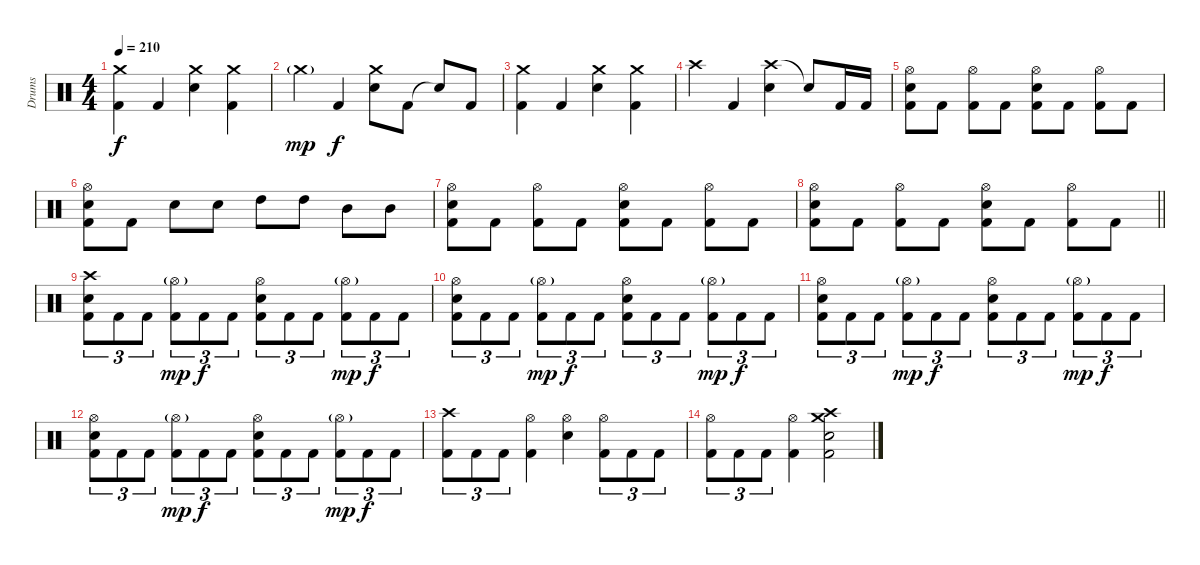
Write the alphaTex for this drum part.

\track ("Drums" "Drums") {instrument percussion}
\staff {score}
\articulation defaults
\ts (4 4)
\tempo 210
\clef neutral
\ks c
("Crash medium (hit)" "Kick (hit) 2").4{dy f} "Kick (hit) 2".4 ("Crash medium (hit)" "Electric Snare (hit)").4 ("Crash medium (hit)" "Kick (hit) 2").4 |
"Crash medium (hit)"{g}.4{dy mp} "Kick (hit) 2".4{dy f} ("Crash medium (hit)" "Electric Snare (hit)").8 "Kick (hit) 2".8 "Snare (hit)"{t}.8 "Kick (hit) 2".8 |
("Crash medium (hit)" "Kick (hit) 2").4 "Kick (hit) 2".4 ("Crash medium (hit)" "Electric Snare (hit)").4 ("Crash medium (hit)" "Kick (hit) 2").4 |
"Crash high (hit)".4 "Kick (hit) 2".4 ("Crash high (hit)" "Electric Snare (hit)").4 "Snare (hit)"{t}.8 "Kick (hit) 2".16 "Kick (hit) 2".16 |
("Hi-Hat (open)" "Electric Snare (hit)" "Kick (hit) 2").8 "Kick (hit) 2".8 ("Hi-Hat (open)" "Kick (hit) 2").8 "Kick (hit) 2".8 ("Hi-Hat (open)" "Electric Snare (hit)" "Kick (hit) 2").8 "Kick (hit) 2".8 ("Hi-Hat (open)" "Kick (hit) 2").8 "Kick (hit) 2".8 |
("Hi-Hat (open)" "Electric Snare (hit)" "Kick (hit) 2").8 "Kick (hit) 2".8 "Electric Snare (hit)".8 "Electric Snare (hit)".8 "High Tom (hit)".8 "High Tom (hit)".8 "Mid Tom (hit)".8 "Mid Tom (hit)".8 |
("Hi-Hat (open)" "Electric Snare (hit)" "Kick (hit) 2").8 "Kick (hit) 2".8 ("Hi-Hat (open)" "Kick (hit) 2").8 "Kick (hit) 2".8 ("Hi-Hat (open)" "Electric Snare (hit)" "Kick (hit) 2").8 "Kick (hit) 2".8 ("Hi-Hat (open)" "Kick (hit) 2").8 "Kick (hit) 2".8 |
\barLineRight lightlight
("Hi-Hat (open)" "Electric Snare (hit)" "Kick (hit) 2").8 "Kick (hit) 2".8 ("Hi-Hat (open)" "Kick (hit) 2").8 "Kick (hit) 2".8 ("Hi-Hat (open)" "Electric Snare (hit)" "Kick (hit) 2").8 "Kick (hit) 2".8 ("Hi-Hat (open)" "Kick (hit) 2").8 "Kick (hit) 2".8 |
("Crash high (hit)" "Electric Snare (hit)" "Kick (hit) 2").8{tu (3 2)} "Kick (hit) 2".8{tu (3 2)} "Kick (hit) 2".8{tu (3 2)} ("Hi-Hat (open)"{g} "Kick (hit) 2").8{tu (3 2) dy mp} "Kick (hit) 2".8{tu (3 2) dy f} "Kick (hit) 2".8{tu (3 2)} ("Hi-Hat (open)" "Electric Snare (hit)" "Kick (hit) 2").8{tu (3 2)} "Kick (hit) 2".8{tu (3 2)} "Kick (hit) 2".8{tu (3 2)} ("Hi-Hat (open)"{g} "Kick (hit) 2").8{tu (3 2) dy mp} "Kick (hit) 2".8{tu (3 2) dy f} "Kick (hit) 2".8{tu (3 2)} |
("Hi-Hat (open)" "Electric Snare (hit)" "Kick (hit) 2").8{tu (3 2)} "Kick (hit) 2".8{tu (3 2)} "Kick (hit) 2".8{tu (3 2)} ("Hi-Hat (open)"{g} "Kick (hit) 2").8{tu (3 2) dy mp} "Kick (hit) 2".8{tu (3 2) dy f} "Kick (hit) 2".8{tu (3 2)} ("Hi-Hat (open)" "Electric Snare (hit)" "Kick (hit) 2").8{tu (3 2)} "Kick (hit) 2".8{tu (3 2)} "Kick (hit) 2".8{tu (3 2)} ("Hi-Hat (open)"{g} "Kick (hit) 2").8{tu (3 2) dy mp} "Kick (hit) 2".8{tu (3 2) dy f} "Kick (hit) 2".8{tu (3 2)} |
("Hi-Hat (open)" "Electric Snare (hit)" "Kick (hit) 2").8{tu (3 2)} "Kick (hit) 2".8{tu (3 2)} "Kick (hit) 2".8{tu (3 2)} ("Hi-Hat (open)"{g} "Kick (hit) 2").8{tu (3 2) dy mp} "Kick (hit) 2".8{tu (3 2) dy f} "Kick (hit) 2".8{tu (3 2)} ("Hi-Hat (open)" "Electric Snare (hit)" "Kick (hit) 2").8{tu (3 2)} "Kick (hit) 2".8{tu (3 2)} "Kick (hit) 2".8{tu (3 2)} ("Hi-Hat (open)"{g} "Kick (hit) 2").8{tu (3 2) dy mp} "Kick (hit) 2".8{tu (3 2) dy f} "Kick (hit) 2".8{tu (3 2)} |
("Hi-Hat (open)" "Electric Snare (hit)" "Kick (hit) 2").8{tu (3 2)} "Kick (hit) 2".8{tu (3 2)} "Kick (hit) 2".8{tu (3 2)} ("Hi-Hat (open)"{g} "Kick (hit) 2").8{tu (3 2) dy mp} "Kick (hit) 2".8{tu (3 2) dy f} "Kick (hit) 2".8{tu (3 2)} ("Hi-Hat (open)" "Electric Snare (hit)" "Kick (hit) 2").8{tu (3 2)} "Kick (hit) 2".8{tu (3 2)} "Kick (hit) 2".8{tu (3 2)} ("Hi-Hat (open)"{g} "Kick (hit) 2").8{tu (3 2) dy mp} "Kick (hit) 2".8{tu (3 2) dy f} "Kick (hit) 2".8{tu (3 2)} |
("Crash high (hit)" "Kick (hit) 2").8{tu (3 2)} "Kick (hit) 2".8{tu (3 2)} "Kick (hit) 2".8{tu (3 2)} ("Hi-Hat (open)" "Kick (hit) 2").4 ("Hi-Hat (open)" "Electric Snare (hit)").4 ("Hi-Hat (open)" "Kick (hit) 2").8{tu (3 2)} "Kick (hit) 2".8{tu (3 2)} "Kick (hit) 2".8{tu (3 2)} |
("Hi-Hat (open)" "Kick (hit) 2").8{tu (3 2)} "Kick (hit) 2".8{tu (3 2)} "Kick (hit) 2".8{tu (3 2)} ("Hi-Hat (open)" "Kick (hit) 2").4 ("Crash high (hit)" "Crash medium (hit)" "Electric Snare (hit)" "Kick (hit) 2").2
